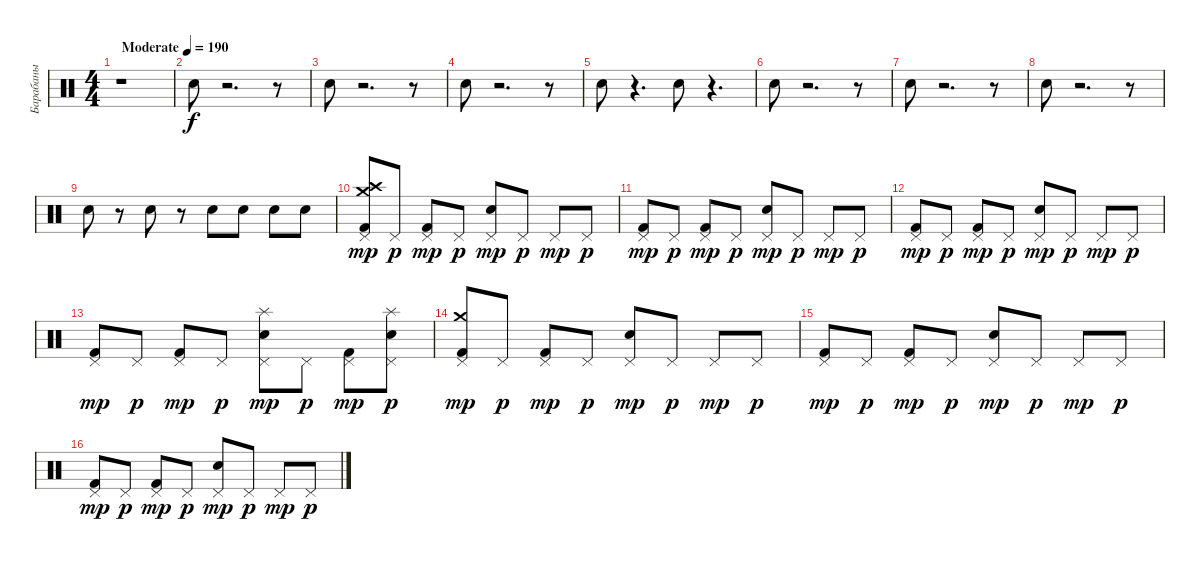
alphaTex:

\track ("Барабаны" "Барабаны") {instrument percussion}
\staff {score}
\articulation defaults
\ts (4 4)
\tempo (190 "Moderate")
\clef neutral
\ks c
r.1{dy f} |
"Electric Snare (hit)".8 r.2{d} r.8 |
"Electric Snare (hit)".8 r.2{d} r.8 |
"Electric Snare (hit)".8 r.2{d} r.8 |
"Electric Snare (hit)".8 r.4{d} "Electric Snare (hit)".8 r.4{d} |
"Electric Snare (hit)".8 r.2{d} r.8 |
"Electric Snare (hit)".8 r.2{d} r.8 |
"Electric Snare (hit)".8 r.2{d} r.8 |
"Electric Snare (hit)".8 r.8 "Electric Snare (hit)".8 r.8 "Electric Snare (hit)".8 "Electric Snare (hit)".8 "Electric Snare (hit)".8 "Electric Snare (hit)".8 |
("Pedal Hi-Hat (hit)" "Crash medium (hit)" "Crash high (hit)" "Kick (hit) 2").8{dy mp} "Pedal Hi-Hat (hit)".8{dy p} ("Pedal Hi-Hat (hit)" "Kick (hit) 2").8{dy mp} "Pedal Hi-Hat (hit)".8{dy p} ("Pedal Hi-Hat (hit)" "Electric Snare (hit)").8{dy mp} "Pedal Hi-Hat (hit)".8{dy p} "Pedal Hi-Hat (hit)".8{dy mp} "Pedal Hi-Hat (hit)".8{dy p} |
("Pedal Hi-Hat (hit)" "Kick (hit) 2").8{dy mp} "Pedal Hi-Hat (hit)".8{dy p} ("Pedal Hi-Hat (hit)" "Kick (hit) 2").8{dy mp} "Pedal Hi-Hat (hit)".8{dy p} ("Pedal Hi-Hat (hit)" "Electric Snare (hit)").8{dy mp} "Pedal Hi-Hat (hit)".8{dy p} "Pedal Hi-Hat (hit)".8{dy mp} "Pedal Hi-Hat (hit)".8{dy p} |
("Pedal Hi-Hat (hit)" "Kick (hit) 2").8{dy mp} "Pedal Hi-Hat (hit)".8{dy p} ("Pedal Hi-Hat (hit)" "Kick (hit) 2").8{dy mp} "Pedal Hi-Hat (hit)".8{dy p} ("Pedal Hi-Hat (hit)" "Electric Snare (hit)").8{dy mp} "Pedal Hi-Hat (hit)".8{dy p} "Pedal Hi-Hat (hit)".8{dy mp} "Pedal Hi-Hat (hit)".8{dy p} |
("Pedal Hi-Hat (hit)" "Kick (hit) 2").8{dy mp} "Pedal Hi-Hat (hit)".8{dy p} ("Pedal Hi-Hat (hit)" "Kick (hit) 2").8{dy mp} "Pedal Hi-Hat (hit)".8{dy p} ("Splash (hit)" "Pedal Hi-Hat (hit)" "Electric Snare (hit)").8{dy mp} "Pedal Hi-Hat (hit)".8{dy p} ("Pedal Hi-Hat (hit)" "Kick (hit) 2").8{dy mp} ("Splash (hit)" "Pedal Hi-Hat (hit)" "Electric Snare (hit)").8{dy p} |
("Crash medium (hit)" "Pedal Hi-Hat (hit)" "Kick (hit) 2").8{dy mp} "Pedal Hi-Hat (hit)".8{dy p} ("Pedal Hi-Hat (hit)" "Kick (hit) 2").8{dy mp} "Pedal Hi-Hat (hit)".8{dy p} ("Pedal Hi-Hat (hit)" "Electric Snare (hit)").8{dy mp} "Pedal Hi-Hat (hit)".8{dy p} "Pedal Hi-Hat (hit)".8{dy mp} "Pedal Hi-Hat (hit)".8{dy p} |
("Pedal Hi-Hat (hit)" "Kick (hit) 2").8{dy mp} "Pedal Hi-Hat (hit)".8{dy p} ("Pedal Hi-Hat (hit)" "Kick (hit) 2").8{dy mp} "Pedal Hi-Hat (hit)".8{dy p} ("Pedal Hi-Hat (hit)" "Electric Snare (hit)").8{dy mp} "Pedal Hi-Hat (hit)".8{dy p} "Pedal Hi-Hat (hit)".8{dy mp} "Pedal Hi-Hat (hit)".8{dy p} |
("Pedal Hi-Hat (hit)" "Kick (hit) 2").8{dy mp} "Pedal Hi-Hat (hit)".8{dy p} ("Pedal Hi-Hat (hit)" "Kick (hit) 2").8{dy mp} "Pedal Hi-Hat (hit)".8{dy p} ("Pedal Hi-Hat (hit)" "Electric Snare (hit)").8{dy mp} "Pedal Hi-Hat (hit)".8{dy p} "Pedal Hi-Hat (hit)".8{dy mp} "Pedal Hi-Hat (hit)".8{dy p}
